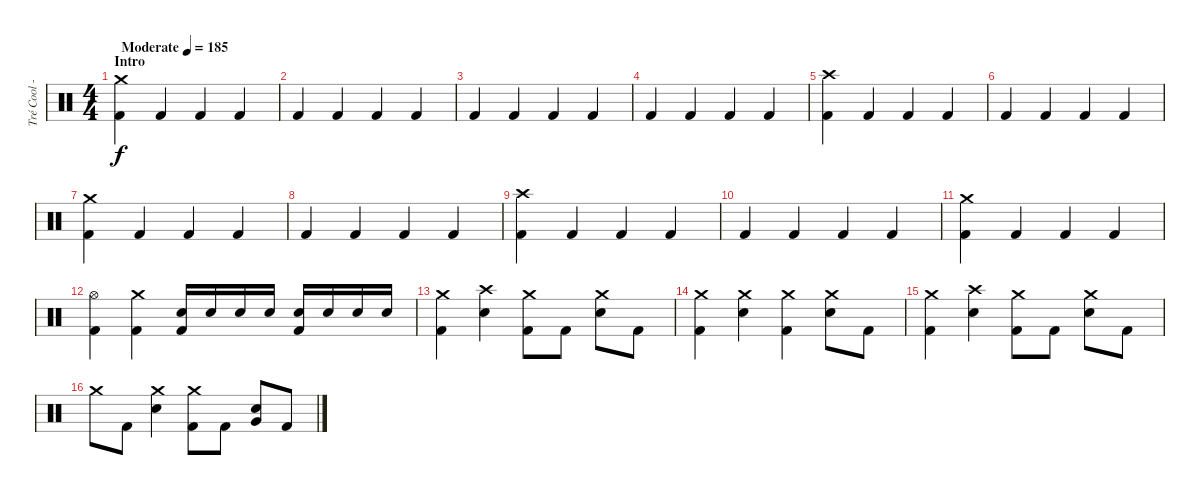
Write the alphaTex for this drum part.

\track ("Tré Cool - Drums" "Tré Cool -") {instrument percussion}
\staff {score}
\articulation defaults
\ts (4 4)
\section ("" "Intro")
\tempo (185 "Moderate")
\clef neutral
\ks c
("Crash medium (hit)" "Kick (hit) 2").4{dy f} "Kick (hit) 2".4 "Kick (hit) 2".4 "Kick (hit) 2".4 |
"Kick (hit) 2".4 "Kick (hit) 2".4 "Kick (hit) 2".4 "Kick (hit) 2".4 |
"Kick (hit) 2".4 "Kick (hit) 2".4 "Kick (hit) 2".4 "Kick (hit) 2".4 |
"Kick (hit) 2".4 "Kick (hit) 2".4 "Kick (hit) 2".4 "Kick (hit) 2".4 |
("Crash high (hit)" "Kick (hit) 2").4 "Kick (hit) 2".4 "Kick (hit) 2".4 "Kick (hit) 2".4 |
"Kick (hit) 2".4 "Kick (hit) 2".4 "Kick (hit) 2".4 "Kick (hit) 2".4 |
("Crash medium (hit)" "Kick (hit) 2").4 "Kick (hit) 2".4 "Kick (hit) 2".4 "Kick (hit) 2".4 |
"Kick (hit) 2".4 "Kick (hit) 2".4 "Kick (hit) 2".4 "Kick (hit) 2".4 |
("Crash high (hit)" "Kick (hit) 2").4 "Kick (hit) 2".4 "Kick (hit) 2".4 "Kick (hit) 2".4 |
"Kick (hit) 2".4 "Kick (hit) 2".4 "Kick (hit) 2".4 "Kick (hit) 2".4 |
("Crash medium (hit)" "Kick (hit) 2").4 "Kick (hit) 2".4 "Kick (hit) 2".4 "Kick (hit) 2".4 |
("Hi-Hat (open)" "Kick (hit) 2").4 ("Crash medium (hit)" "Kick (hit) 2").4 ("Electric Snare (hit)" "Kick (hit) 2").16 "Electric Snare (hit)".16 "Electric Snare (hit)".16 "Electric Snare (hit)".16 ("Electric Snare (hit)" "Kick (hit) 2").16 "Electric Snare (hit)".16 "Electric Snare (hit)".16 "Electric Snare (hit)".16 |
("Crash medium (hit)" "Kick (hit) 2").4 ("Crash high (hit)" "Electric Snare (hit)").4 ("Crash medium (hit)" "Kick (hit) 2").8 "Kick (hit) 2".8 ("Crash medium (hit)" "Electric Snare (hit)").8 "Kick (hit) 2".8 |
("Crash medium (hit)" "Kick (hit) 2").4 ("Crash medium (hit)" "Electric Snare (hit)").4 ("Crash medium (hit)" "Kick (hit) 2").4 ("Crash medium (hit)" "Electric Snare (hit)").8 "Kick (hit) 2".8 |
("Crash medium (hit)" "Kick (hit) 2").4 ("Crash high (hit)" "Electric Snare (hit)").4 ("Crash medium (hit)" "Kick (hit) 2").8 "Kick (hit) 2".8 ("Crash medium (hit)" "Electric Snare (hit)").8 "Kick (hit) 2".8 |
"Crash medium (hit)".8 "Kick (hit) 2".8 ("Crash medium (hit)" "Electric Snare (hit)").4 ("Crash medium (hit)" "Kick (hit) 2").8 "Kick (hit) 2".8 ("Very Low Tom (hit)" "Electric Snare (hit)").8 "Kick (hit) 2".8
